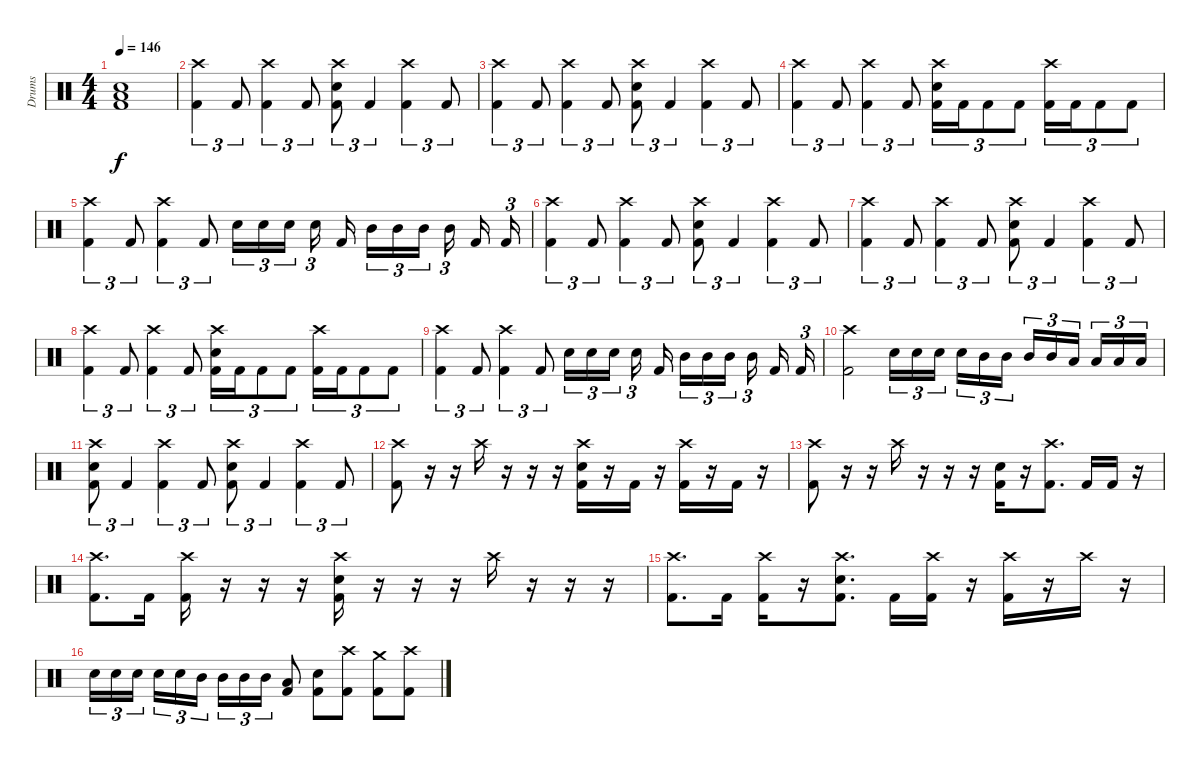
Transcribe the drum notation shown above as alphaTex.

\track ("Drums" "Drums") {instrument percussion}
\staff {score}
\articulation defaults
\ts (4 4)
\tempo 146
\clef neutral
\ks c
("Low Floor Tom (hit)" "Snare (hit) 2" "Kick (hit) 2").1{dy f} |
("Crash high (hit)" "Kick (hit) 2").4{tu (3 2)} "Kick (hit) 2".8{tu (3 2)} ("Crash high (hit)" "Kick (hit) 2").4{tu (3 2)} "Kick (hit) 2".8{tu (3 2)} ("Crash high (hit)" "Snare (hit) 2" "Kick (hit) 2").8{tu (3 2)} "Kick (hit) 2".4{tu (3 2)} ("Crash high (hit)" "Kick (hit) 2").4{tu (3 2)} "Kick (hit) 2".8{tu (3 2)} |
("Crash high (hit)" "Kick (hit) 2").4{tu (3 2)} "Kick (hit) 2".8{tu (3 2)} ("Crash high (hit)" "Kick (hit) 2").4{tu (3 2)} "Kick (hit) 2".8{tu (3 2)} ("Crash high (hit)" "Snare (hit) 2" "Kick (hit) 2").8{tu (3 2)} "Kick (hit) 2".4{tu (3 2)} ("Crash high (hit)" "Kick (hit) 2").4{tu (3 2)} "Kick (hit) 2".8{tu (3 2)} |
("Crash high (hit)" "Kick (hit) 2").4{tu (3 2)} "Kick (hit) 2".8{tu (3 2)} ("Crash high (hit)" "Kick (hit) 2").4{tu (3 2)} "Kick (hit) 2".8{tu (3 2)} ("Crash high (hit)" "Snare (hit) 2" "Kick (hit) 2").16{tu (3 2)} "Kick (hit) 2".16{tu (3 2)} "Kick (hit) 2".8{tu (3 2)} "Kick (hit) 2".8{tu (3 2)} ("Crash high (hit)" "Kick (hit) 2").16{tu (3 2)} "Kick (hit) 2".16{tu (3 2)} "Kick (hit) 2".8{tu (3 2)} "Kick (hit) 2".8{tu (3 2)} |
("Crash high (hit)" "Kick (hit) 2").4{tu (3 2)} "Kick (hit) 2".8{tu (3 2)} ("Crash high (hit)" "Kick (hit) 2").4{tu (3 2)} "Kick (hit) 2".8{tu (3 2)} "Snare (hit) 2".16{tu (3 2)} "Snare (hit) 2".16{tu (3 2)} "Snare (hit) 2".16{tu (3 2)} "Snare (hit) 2".16{tu (3 2)} "Kick (hit) 2".16 "Mid Tom (hit)".16{tu (3 2)} "Mid Tom (hit)".16{tu (3 2)} "Mid Tom (hit)".16{tu (3 2)} "Mid Tom (hit)".16{tu (3 2)} "Kick (hit) 2".16 "Kick (hit) 2".16{tu (3 2)} |
("Crash high (hit)" "Kick (hit) 2").4{tu (3 2)} "Kick (hit) 2".8{tu (3 2)} ("Crash high (hit)" "Kick (hit) 2").4{tu (3 2)} "Kick (hit) 2".8{tu (3 2)} ("Crash high (hit)" "Snare (hit) 2" "Kick (hit) 2").8{tu (3 2)} "Kick (hit) 2".4{tu (3 2)} ("Crash high (hit)" "Kick (hit) 2").4{tu (3 2)} "Kick (hit) 2".8{tu (3 2)} |
("Crash high (hit)" "Kick (hit) 2").4{tu (3 2)} "Kick (hit) 2".8{tu (3 2)} ("Crash high (hit)" "Kick (hit) 2").4{tu (3 2)} "Kick (hit) 2".8{tu (3 2)} ("Crash high (hit)" "Snare (hit) 2" "Kick (hit) 2").8{tu (3 2)} "Kick (hit) 2".4{tu (3 2)} ("Crash high (hit)" "Kick (hit) 2").4{tu (3 2)} "Kick (hit) 2".8{tu (3 2)} |
("Crash high (hit)" "Kick (hit) 2").4{tu (3 2)} "Kick (hit) 2".8{tu (3 2)} ("Crash high (hit)" "Kick (hit) 2").4{tu (3 2)} "Kick (hit) 2".8{tu (3 2)} ("Crash high (hit)" "Snare (hit) 2" "Kick (hit) 2").16{tu (3 2)} "Kick (hit) 2".16{tu (3 2)} "Kick (hit) 2".8{tu (3 2)} "Kick (hit) 2".8{tu (3 2)} ("Crash high (hit)" "Kick (hit) 2").16{tu (3 2)} "Kick (hit) 2".16{tu (3 2)} "Kick (hit) 2".8{tu (3 2)} "Kick (hit) 2".8{tu (3 2)} |
("Crash high (hit)" "Kick (hit) 2").4{tu (3 2)} "Kick (hit) 2".8{tu (3 2)} ("Crash high (hit)" "Kick (hit) 2").4{tu (3 2)} "Kick (hit) 2".8{tu (3 2)} "Snare (hit) 2".16{tu (3 2)} "Snare (hit) 2".16{tu (3 2)} "Snare (hit) 2".16{tu (3 2)} "Snare (hit) 2".16{tu (3 2)} "Kick (hit) 2".16 "Mid Tom (hit)".16{tu (3 2)} "Mid Tom (hit)".16{tu (3 2)} "Mid Tom (hit)".16{tu (3 2)} "Mid Tom (hit)".16{tu (3 2)} "Kick (hit) 2".16 "Kick (hit) 2".16{tu (3 2)} |
("Crash high (hit)" "Kick (hit) 2").2 "Snare (hit) 2".16{tu (3 2)} "Snare (hit) 2".16{tu (3 2)} "Snare (hit) 2".16{tu (3 2)} "Snare (hit) 2".16{tu (3 2)} "Mid Tom (hit)".16{tu (3 2)} "Mid Tom (hit)".16{tu (3 2)} "Mid Tom (hit)".16{tu (3 2)} "Mid Tom (hit)".16{tu (3 2)} "Low Floor Tom (hit)".16{tu (3 2)} "Low Floor Tom (hit)".16{tu (3 2)} "Low Floor Tom (hit)".16{tu (3 2)} "Low Floor Tom (hit)".16{tu (3 2)} |
("Crash high (hit)" "Snare (hit) 2" "Kick (hit) 2").8{tu (3 2)} "Kick (hit) 2".4{tu (3 2)} ("Crash high (hit)" "Kick (hit) 2").4{tu (3 2)} "Kick (hit) 2".8{tu (3 2)} ("Crash high (hit)" "Snare (hit) 2" "Kick (hit) 2").8{tu (3 2)} "Kick (hit) 2".4{tu (3 2)} ("Crash high (hit)" "Kick (hit) 2").4{tu (3 2)} "Kick (hit) 2".8{tu (3 2)} |
("Crash high (hit)" "Kick (hit) 2").8 r.16 r.16 "Crash high (hit)".16 r.16 r.16 r.16 ("Crash high (hit)" "Snare (hit) 2" "Kick (hit) 2").16 r.16 "Kick (hit) 2".16 r.16 ("Crash high (hit)" "Kick (hit) 2").16 r.16 "Kick (hit) 2".16 r.16 |
("Crash high (hit)" "Kick (hit) 2").8 r.16 r.16 "Crash high (hit)".16 r.16 r.16 r.16 ("Snare (hit) 2" "Kick (hit) 2").16 r.16 ("Crash high (hit)" "Kick (hit) 2").8{d} "Kick (hit) 2".16 "Kick (hit) 2".16 r.16 |
("Crash high (hit)" "Kick (hit) 2").8{d} "Kick (hit) 2".16 ("Crash high (hit)" "Kick (hit) 2").16 r.16 r.16 r.16 ("Crash high (hit)" "Snare (hit) 2" "Kick (hit) 2").16 r.16 r.16 r.16 "Crash high (hit)".16 r.16 r.16 r.16 |
("Crash high (hit)" "Kick (hit) 2").8{d} "Kick (hit) 2".16 ("Crash high (hit)" "Kick (hit) 2").16 r.16 ("Crash high (hit)" "Snare (hit) 2" "Kick (hit) 2").8{d} "Kick (hit) 2".16 ("Crash high (hit)" "Kick (hit) 2").16 r.16 ("Crash high (hit)" "Kick (hit) 2").16 r.16 "Crash high (hit)".16 r.16 |
"Snare (hit) 2".16{tu (3 2)} "Snare (hit) 2".16{tu (3 2)} "Snare (hit) 2".16{tu (3 2)} "Snare (hit) 2".16{tu (3 2)} "Snare (hit) 2".16{tu (3 2)} "Mid Tom (hit)".16{tu (3 2)} "Mid Tom (hit)".16{tu (3 2)} "Mid Tom (hit)".16{tu (3 2)} "Mid Tom (hit)".16{tu (3 2)} ("Low Floor Tom (hit)" "Kick (hit) 2").8 ("Snare (hit) 2" "Kick (hit) 2").8 ("Crash high (hit)" "Kick (hit) 2").8 ("Crash medium (hit)" "Kick (hit) 2").8 ("Crash high (hit)" "Kick (hit) 2").8
